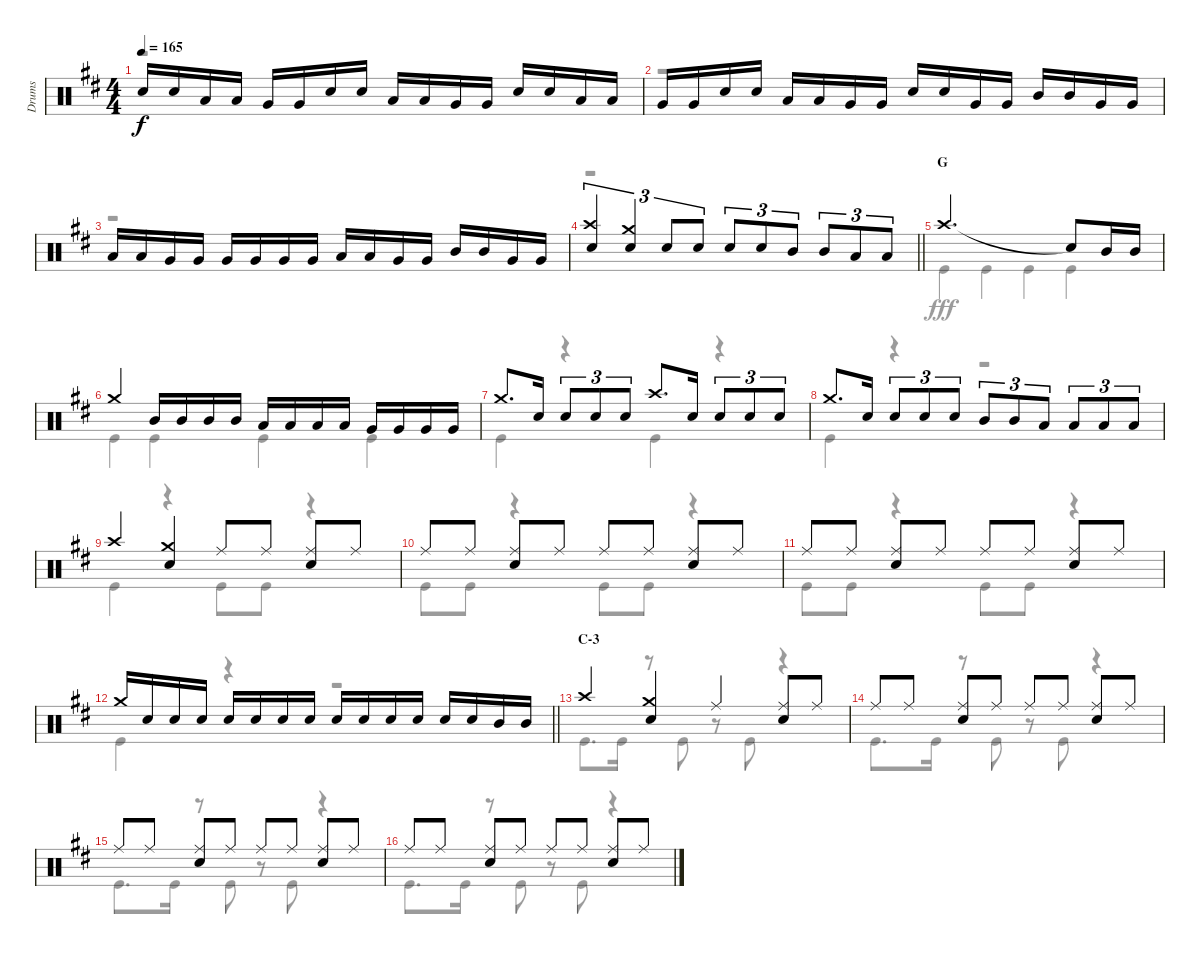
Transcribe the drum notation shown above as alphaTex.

\track ("Drums" "Drums") {instrument percussion}
\staff {score}
\articulation defaults
\voice
\ts (4 4)
\tempo 165
\clef neutral
\ks d "Snare (hit) 2".16{dy f} "Snare (hit) 2".16 "Low Tom (hit)".16 "Low Tom (hit)".16 "Very Low Tom (hit)".16 "Very Low Tom (hit)".16 "Snare (hit) 2".16 "Snare (hit) 2".16 "Low Tom (hit)".16 "Low Tom (hit)".16 "Very Low Tom (hit)".16 "Very Low Tom (hit)".16 "Snare (hit) 2".16 "Snare (hit) 2".16 "Low Tom (hit)".16 "Low Tom (hit)".16
|
"Very Low Tom (hit)".16 "Very Low Tom (hit)".16 "Snare (hit) 2".16 "Snare (hit) 2".16 "Low Tom (hit)".16 "Low Tom (hit)".16 "Very Low Tom (hit)".16 "Very Low Tom (hit)".16 "Snare (hit) 2".16 "Snare (hit) 2".16 "Very Low Tom (hit)".16 "Very Low Tom (hit)".16 "Mid Tom (hit)".16 "Mid Tom (hit)".16 "Very Low Tom (hit)".16 "Very Low Tom (hit)".16 |
"Low Tom (hit)".16 "Low Tom (hit)".16 "Very Low Tom (hit)".16 "Very Low Tom (hit)".16 "Very Low Tom (hit)".16 "Very Low Tom (hit)".16 "Very Low Tom (hit)".16 "Very Low Tom (hit)".16 "Low Tom (hit)".16 "Low Tom (hit)".16 "Very Low Tom (hit)".16 "Very Low Tom (hit)".16 "Mid Tom (hit)".16 "Mid Tom (hit)".16 "Very Low Tom (hit)".16 "Very Low Tom (hit)".16 |
\barLineRight lightlight
("Crash high (hit)" "Snare (hit) 2").4{tu (3 2)} ("Crash medium (hit)" "Snare (hit) 2").4{tu (3 2)} "Snare (hit) 2".8{tu (3 2)} "Snare (hit) 2".8{tu (3 2)} "Snare (hit) 2".8{tu (3 2)} "Snare (hit) 2".8{tu (3 2)} "Mid Tom (hit)".8{tu (3 2)} "Mid Tom (hit)".8{tu (3 2)} "Low Tom (hit)".8{tu (3 2)} "Low Tom (hit)".8{tu (3 2)} |
\section ("" "G")
"Crash high (hit)".2{d} "Snare (hit)"{t}.8 "Mid Tom (hit)".16 "Mid Tom (hit)".16 |
"Crash medium (hit)".4 "Mid Tom (hit)".16 "Mid Tom (hit)".16 "Mid Tom (hit)".16 "Mid Tom (hit)".16 "Low Tom (hit)".16 "Low Tom (hit)".16 "Low Tom (hit)".16 "Low Tom (hit)".16 "Very Low Tom (hit)".16 "Very Low Tom (hit)".16 "Very Low Tom (hit)".16 "Very Low Tom (hit)".16 |
"Crash medium (hit)".8{d} "Snare (hit) 2".16 "Snare (hit) 2".8{tu (3 2)} "Snare (hit) 2".8{tu (3 2)} "Snare (hit) 2".8{tu (3 2)} "Crash high (hit)".8{d} "Snare (hit) 2".16 "Snare (hit) 2".8{tu (3 2)} "Snare (hit) 2".8{tu (3 2)} "Snare (hit) 2".8{tu (3 2)} |
"Crash medium (hit)".8{d} "Snare (hit) 2".16 "Snare (hit) 2".8{tu (3 2)} "Snare (hit) 2".8{tu (3 2)} "Snare (hit) 2".8{tu (3 2)} "Mid Tom (hit)".8{tu (3 2)} "Mid Tom (hit)".8{tu (3 2)} "Low Tom (hit)".8{tu (3 2)} "Low Tom (hit)".8{tu (3 2)} "Low Tom (hit)".8{tu (3 2)} "Low Tom (hit)".8{tu (3 2)} |
"Crash high (hit)".4 ("Crash medium (hit)" "Snare (hit) 2").4 "Ride (middle)".8 "Ride (middle)".8 ("Ride (middle)" "Snare (hit) 2").8 "Ride (middle)".8 |
"Ride (middle)".8 "Ride (middle)".8 ("Ride (middle)" "Snare (hit) 2").8 "Ride (middle)".8 "Ride (middle)".8 "Ride (middle)".8 ("Ride (middle)" "Snare (hit) 2").8 "Ride (middle)".8 |
"Ride (middle)".8 "Ride (middle)".8 ("Ride (middle)" "Snare (hit) 2").8 "Ride (middle)".8 "Ride (middle)".8 "Ride (middle)".8 ("Ride (middle)" "Snare (hit) 2").8 "Ride (middle)".8 |
\barLineRight lightlight "Crash medium (hit)".16 "Snare (hit) 2".16 "Snare (hit) 2".16 "Snare (hit) 2".16 "Snare (hit) 2".16 "Snare (hit) 2".16 "Snare (hit) 2".16 "Snare (hit) 2".16 "Snare (hit) 2".16 "Snare (hit) 2".16 "Snare (hit) 2".16 "Snare (hit) 2".16 "Snare (hit) 2".16 "Snare (hit) 2".16 "Mid Tom (hit)".16 "Mid Tom (hit)".16
|
\section ("" "C-3")
"Crash high (hit)".4 ("Crash medium (hit)" "Snare (hit) 2").4 "Ride (middle)".4 ("Ride (middle)" "Snare (hit) 2").8 "Ride (middle)".8 |
"Ride (middle)".8 "Ride (middle)".8 ("Ride (middle)" "Snare (hit) 2").8 "Ride (middle)".8 "Ride (middle)".8 "Ride (middle)".8 ("Ride (middle)" "Snare (hit) 2").8 "Ride (middle)".8 |
"Ride (middle)".8 "Ride (middle)".8 ("Ride (middle)" "Snare (hit) 2").8 "Ride (middle)".8 "Ride (middle)".8 "Ride (middle)".8 ("Ride (middle)" "Snare (hit) 2").8 "Ride (middle)".8 |
"Ride (middle)".8 "Ride (middle)".8 ("Ride (middle)" "Snare (hit) 2").8 "Ride (middle)".8 "Ride (middle)".8 "Ride (middle)".8 ("Ride (middle)" "Snare (hit) 2").8 "Ride (middle)".8
\voice
\clef neutral
\ottava regular
\simile none
\ks d
r.1{dy fff} |
r.1 |
r.1 |
\barLineRight lightlight
r.1 |
"Kick (hit)".4 "Kick (hit)".4 "Kick (hit)".4 "Kick (hit)".4 |
"Kick (hit)".4 "Kick (hit)".4 "Kick (hit)".4 "Kick (hit)".4 |
"Kick (hit)".4 r.4 "Kick (hit)".4 r.4 |
"Kick (hit)".4 r.4 r.2 |
"Kick (hit)".4 r.4 "Kick (hit)".8 "Kick (hit)".8 r.4 |
"Kick (hit)".8 "Kick (hit)".8 r.4 "Kick (hit)".8 "Kick (hit)".8 r.4 |
"Kick (hit)".8 "Kick (hit)".8 r.4 "Kick (hit)".8 "Kick (hit)".8 r.4 |
\barLineRight lightlight "Kick (hit)".4
r.4 r.2 |
"Kick (hit)".8{d} "Kick (hit)".16 r.8 "Kick (hit)".8 r.8 "Kick (hit)".8 r.4 |
"Kick (hit)".8{d} "Kick (hit)".16 r.8 "Kick (hit)".8 r.8 "Kick (hit)".8 r.4 |
"Kick (hit)".8{d} "Kick (hit)".16 r.8 "Kick (hit)".8 r.8 "Kick (hit)".8 r.4 |
"Kick (hit)".8{d} "Kick (hit)".16 r.8 "Kick (hit)".8 r.8 "Kick (hit)".8 r.4
